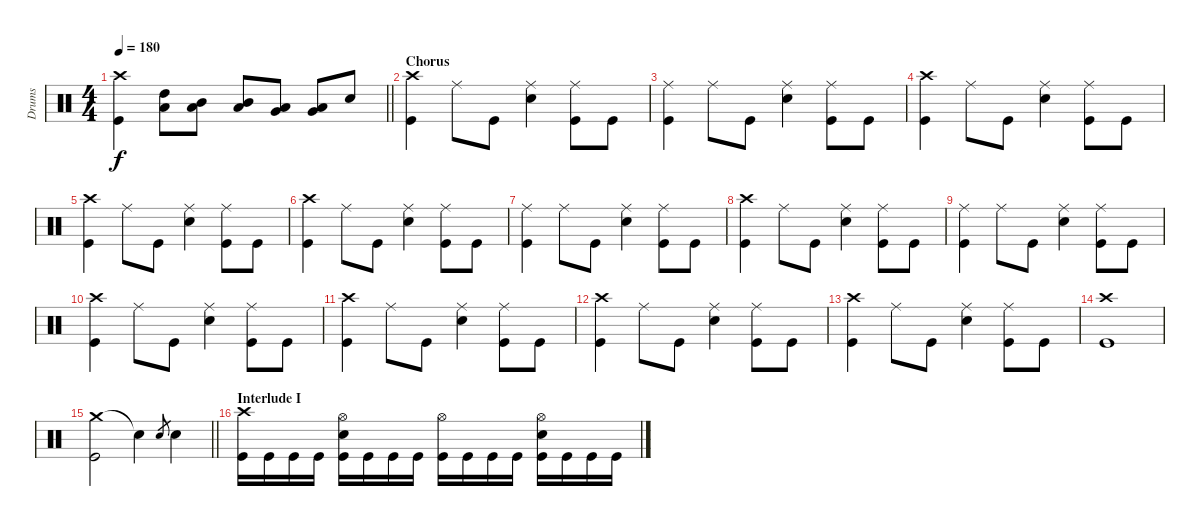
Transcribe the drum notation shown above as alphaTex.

\track ("Drums" "Drums") {instrument percussion}
\staff {score}
\articulation defaults
\ts (4 4)
\tempo 180
\clef neutral
\barLineRight lightlight
\ks c
("Crash high (hit)" "Kick (hit)").4{dy f} ("High Tom (hit)" "Low Tom (hit)").8 ("Mid Tom (hit)" "Low Tom (hit)").8 ("Mid Tom (hit)" "Low Tom (hit)").8 ("Low Tom (hit)" "Very Low Tom (hit)").8 ("Low Tom (hit)" "Very Low Tom (hit)").8 "Electric Snare (hit)".8 |
\section ("" "Chorus")
("Crash high (hit)" "Kick (hit)").4 "Ride (middle)".8 "Kick (hit)".8 ("Ride (middle)" "Electric Snare (hit)").4 ("Ride (middle)" "Kick (hit)").8 "Kick (hit)".8 |
("Ride (middle)" "Kick (hit)").4 "Ride (middle)".8 "Kick (hit)".8 ("Ride (middle)" "Electric Snare (hit)").4 ("Ride (middle)" "Kick (hit)").8 "Kick (hit)".8 |
("Crash high (hit)" "Kick (hit)").4 "Ride (middle)".8 "Kick (hit)".8 ("Ride (middle)" "Electric Snare (hit)").4 ("Ride (middle)" "Kick (hit)").8 "Kick (hit)".8 |
("Crash high (hit)" "Kick (hit)").4 "Ride (middle)".8 "Kick (hit)".8 ("Ride (middle)" "Electric Snare (hit)").4 ("Ride (middle)" "Kick (hit)").8 "Kick (hit)".8 |
("Crash high (hit)" "Kick (hit)").4 "Ride (middle)".8 "Kick (hit)".8 ("Ride (middle)" "Electric Snare (hit)").4 ("Ride (middle)" "Kick (hit)").8 "Kick (hit)".8 |
("Ride (middle)" "Kick (hit)").4 "Ride (middle)".8 "Kick (hit)".8 ("Ride (middle)" "Electric Snare (hit)").4 ("Ride (middle)" "Kick (hit)").8 "Kick (hit)".8 |
("Crash high (hit)" "Kick (hit)").4 "Ride (middle)".8 "Kick (hit)".8 ("Ride (middle)" "Electric Snare (hit)").4 ("Ride (middle)" "Kick (hit)").8 "Kick (hit)".8 |
("Ride (middle)" "Kick (hit)").4 "Ride (middle)".8 "Kick (hit)".8 ("Ride (middle)" "Electric Snare (hit)").4 ("Ride (middle)" "Kick (hit)").8 "Kick (hit)".8 |
("Crash high (hit)" "Kick (hit)").4 "Ride (middle)".8 "Kick (hit)".8 ("Ride (middle)" "Electric Snare (hit)").4 ("Ride (middle)" "Kick (hit)").8 "Kick (hit)".8 |
("Crash high (hit)" "Kick (hit)").4 "Ride (middle)".8 "Kick (hit)".8 ("Ride (middle)" "Electric Snare (hit)").4 ("Ride (middle)" "Kick (hit)").8 "Kick (hit)".8 |
("Crash high (hit)" "Kick (hit)").4 "Ride (middle)".8 "Kick (hit)".8 ("Ride (middle)" "Electric Snare (hit)").4 ("Ride (middle)" "Kick (hit)").8 "Kick (hit)".8 |
("Crash high (hit)" "Kick (hit)").4 "Ride (middle)".8 "Kick (hit)".8 ("Ride (middle)" "Electric Snare (hit)").4 ("Ride (middle)" "Kick (hit)").8 "Kick (hit)".8 |
("Crash high (hit)" "Kick (hit)").1 |
\barLineRight lightlight
("Crash medium (hit)" "Kick (hit)").2 "Snare (hit)"{t}.4 "Electric Snare (hit)".8{gr} "Electric Snare (hit)".4 |
\section ("" "Interlude I")
("Crash high (hit)" "Kick (hit)").16 "Kick (hit)".16 "Kick (hit)".16 "Kick (hit)".16 ("Hi-Hat (open)" "Electric Snare (hit)" "Kick (hit)").16 "Kick (hit)".16 "Kick (hit)".16 "Kick (hit)".16 ("Hi-Hat (open)" "Kick (hit)").16 "Kick (hit)".16 "Kick (hit)".16 "Kick (hit)".16 ("Hi-Hat (open)" "Electric Snare (hit)" "Kick (hit)").16 "Kick (hit)".16 "Kick (hit)".16 "Kick (hit)".16
